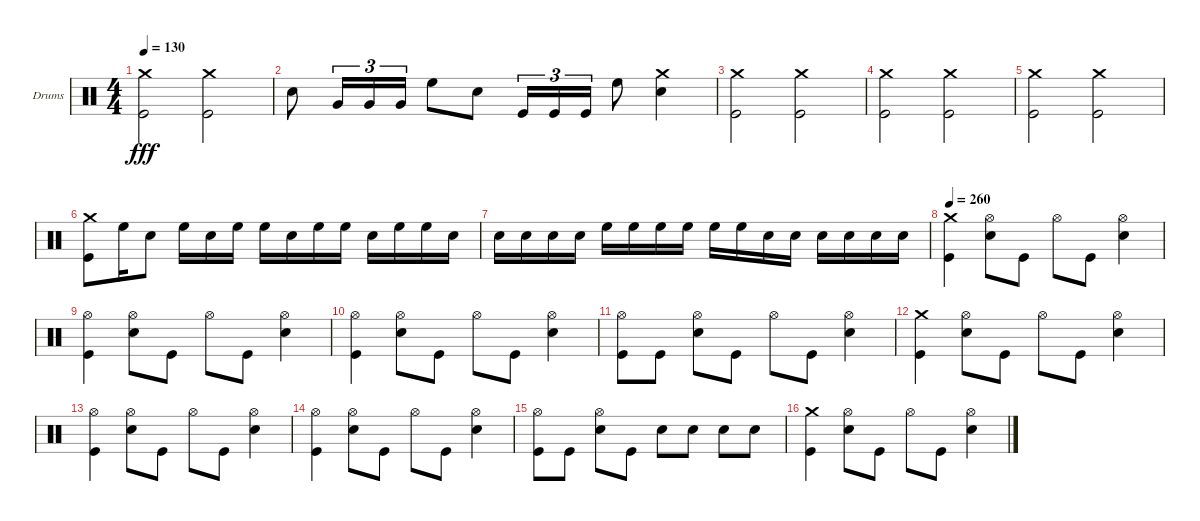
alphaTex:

\defaultSystemsLayout 4
\bracketExtendMode groupsimilarinstruments
\firstSystemTrackNameOrientation horizontal
\otherSystemsTrackNameOrientation horizontal
\track ("Stefan Schwarzmann" "Drums") {instrument percussion}
\staff {score}
\articulation defaults
\ts (4 4)
\tempo 130
\clef neutral
\ks c
("Kick (hit)" "Crash medium (hit)").2{dy fff} ("Kick (hit)" "Crash medium (hit)").2 |
"Snare (hit) 2".8 "Very Low Tom (hit)".16{tu (3 2)} "Very Low Tom (hit)".16{tu (3 2)} "Very Low Tom (hit)".16{tu (3 2)} "High Floor Tom (hit)".8 "Snare (hit) 2".8 "Kick (hit)".16{tu (3 2)} "Kick (hit)".16{tu (3 2)} "Kick (hit)".16{tu (3 2)} "High Floor Tom (hit)".8 ("Snare (hit) 2" "Crash medium (hit)").4 |
("Kick (hit)" "Crash medium (hit)").2 ("Kick (hit)" "Crash medium (hit)").2 |
("Kick (hit)" "Crash medium (hit)").2 ("Kick (hit)" "Crash medium (hit)").2 |
("Kick (hit)" "Crash medium (hit)").2 ("Kick (hit)" "Crash medium (hit)").2 |
("Kick (hit)" "Crash medium (hit)").8 "High Floor Tom (hit)".16 "Snare (hit) 2".8 "High Floor Tom (hit)".16 "Snare (hit) 2".16 "High Floor Tom (hit)".16 "High Floor Tom (hit)".16 "Snare (hit) 2".16 "High Floor Tom (hit)".16 "High Floor Tom (hit)".16 "Snare (hit) 2".16 "High Floor Tom (hit)".16 "High Floor Tom (hit)".16 "Snare (hit) 2".16 |
"Snare (hit) 2".16 "Snare (hit) 2".16 "Snare (hit) 2".16 "Snare (hit) 2".16 "High Floor Tom (hit)".16 "High Floor Tom (hit)".16 "High Floor Tom (hit)".16 "High Floor Tom (hit)".16 "High Floor Tom (hit)".16 "High Floor Tom (hit)".16 "Snare (hit) 2".16 "Snare (hit) 2".16 "Snare (hit) 2".16 "Snare (hit) 2".16 "Snare (hit) 2".16 "Snare (hit) 2".16 |
\tempo 260
("Kick (hit)" "Crash medium (hit)").4 ("Snare (hit) 2" "Hi-Hat (open)").8 "Kick (hit)".8 "Hi-Hat (open)".8 "Kick (hit)".8 ("Snare (hit) 2" "Hi-Hat (open)").4 |
("Kick (hit)" "Hi-Hat (open)").4 ("Snare (hit) 2" "Hi-Hat (open)").8 "Kick (hit)".8 "Hi-Hat (open)".8 "Kick (hit)".8 ("Snare (hit) 2" "Hi-Hat (open)").4 |
("Kick (hit)" "Hi-Hat (open)").4 ("Snare (hit) 2" "Hi-Hat (open)").8 "Kick (hit)".8 "Hi-Hat (open)".8 "Kick (hit)".8 ("Snare (hit) 2" "Hi-Hat (open)").4 |
("Kick (hit)" "Hi-Hat (open)").8 "Kick (hit)".8 ("Snare (hit) 2" "Hi-Hat (open)").8 "Kick (hit)".8 "Hi-Hat (open)".8 "Kick (hit)".8 ("Snare (hit) 2" "Hi-Hat (open)").4 |
("Kick (hit)" "Crash medium (hit)").4 ("Snare (hit) 2" "Hi-Hat (open)").8 "Kick (hit)".8 "Hi-Hat (open)".8 "Kick (hit)".8 ("Snare (hit) 2" "Hi-Hat (open)").4 |
("Kick (hit)" "Hi-Hat (open)").4 ("Snare (hit) 2" "Hi-Hat (open)").8 "Kick (hit)".8 "Hi-Hat (open)".8 "Kick (hit)".8 ("Snare (hit) 2" "Hi-Hat (open)").4 |
("Kick (hit)" "Hi-Hat (open)").4 ("Snare (hit) 2" "Hi-Hat (open)").8 "Kick (hit)".8 "Hi-Hat (open)".8 "Kick (hit)".8 ("Snare (hit) 2" "Hi-Hat (open)").4 |
("Kick (hit)" "Hi-Hat (open)").8 "Kick (hit)".8 ("Snare (hit) 2" "Hi-Hat (open)").8 "Kick (hit)".8 "Snare (hit) 2".8 "Snare (hit) 2".8 "Snare (hit) 2".8 "Snare (hit) 2".8 |
("Kick (hit)" "Crash medium (hit)").4 ("Snare (hit) 2" "Hi-Hat (open)").8 "Kick (hit)".8 "Hi-Hat (open)".8 "Kick (hit)".8 ("Snare (hit) 2" "Hi-Hat (open)").4
